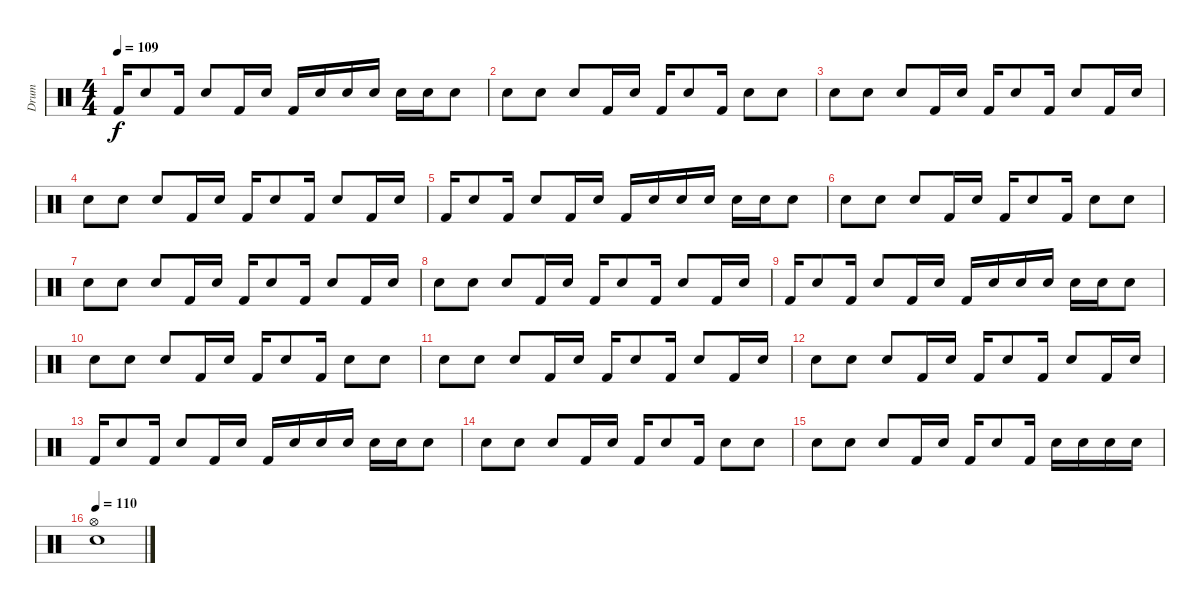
\track ("Drum" "Drum") {instrument percussion}
\staff {score}
\articulation defaults
\ts (4 4)
\tempo 109
\clef neutral
\ks c "Kick (hit) 2".16{dy f} "Electric Snare (hit)".8 "Kick (hit) 2".16 "Electric Snare (hit)".8 "Kick (hit) 2".16 "Electric Snare (hit)".16 "Kick (hit) 2".16 "Electric Snare (hit)".16 "Electric Snare (hit)".16 "Electric Snare (hit)".16 "Electric Snare (hit)".16 "Electric Snare (hit)".16 "Electric Snare (hit)".8
|
"Electric Snare (hit)".8 "Electric Snare (hit)".8 "Electric Snare (hit)".8 "Kick (hit) 2".16 "Electric Snare (hit)".16 "Kick (hit) 2".16 "Electric Snare (hit)".8 "Kick (hit) 2".16 "Electric Snare (hit)".8 "Electric Snare (hit)".8 |
"Electric Snare (hit)".8 "Electric Snare (hit)".8 "Electric Snare (hit)".8 "Kick (hit) 2".16 "Electric Snare (hit)".16 "Kick (hit) 2".16 "Electric Snare (hit)".8 "Kick (hit) 2".16 "Electric Snare (hit)".8 "Kick (hit) 2".16 "Electric Snare (hit)".16 |
"Electric Snare (hit)".8 "Electric Snare (hit)".8 "Electric Snare (hit)".8 "Kick (hit) 2".16 "Electric Snare (hit)".16 "Kick (hit) 2".16 "Electric Snare (hit)".8 "Kick (hit) 2".16 "Electric Snare (hit)".8 "Kick (hit) 2".16 "Electric Snare (hit)".16 |
"Kick (hit) 2".16 "Electric Snare (hit)".8 "Kick (hit) 2".16 "Electric Snare (hit)".8 "Kick (hit) 2".16 "Electric Snare (hit)".16 "Kick (hit) 2".16 "Electric Snare (hit)".16 "Electric Snare (hit)".16 "Electric Snare (hit)".16 "Electric Snare (hit)".16 "Electric Snare (hit)".16 "Electric Snare (hit)".8 |
"Electric Snare (hit)".8 "Electric Snare (hit)".8 "Electric Snare (hit)".8 "Kick (hit) 2".16 "Electric Snare (hit)".16 "Kick (hit) 2".16 "Electric Snare (hit)".8 "Kick (hit) 2".16 "Electric Snare (hit)".8 "Electric Snare (hit)".8 |
"Electric Snare (hit)".8 "Electric Snare (hit)".8 "Electric Snare (hit)".8 "Kick (hit) 2".16 "Electric Snare (hit)".16 "Kick (hit) 2".16 "Electric Snare (hit)".8 "Kick (hit) 2".16 "Electric Snare (hit)".8 "Kick (hit) 2".16 "Electric Snare (hit)".16 |
"Electric Snare (hit)".8 "Electric Snare (hit)".8 "Electric Snare (hit)".8 "Kick (hit) 2".16 "Electric Snare (hit)".16 "Kick (hit) 2".16 "Electric Snare (hit)".8 "Kick (hit) 2".16 "Electric Snare (hit)".8 "Kick (hit) 2".16 "Electric Snare (hit)".16 |
"Kick (hit) 2".16 "Electric Snare (hit)".8 "Kick (hit) 2".16 "Electric Snare (hit)".8 "Kick (hit) 2".16 "Electric Snare (hit)".16 "Kick (hit) 2".16 "Electric Snare (hit)".16 "Electric Snare (hit)".16 "Electric Snare (hit)".16 "Electric Snare (hit)".16 "Electric Snare (hit)".16 "Electric Snare (hit)".8 |
"Electric Snare (hit)".8 "Electric Snare (hit)".8 "Electric Snare (hit)".8 "Kick (hit) 2".16 "Electric Snare (hit)".16 "Kick (hit) 2".16 "Electric Snare (hit)".8 "Kick (hit) 2".16 "Electric Snare (hit)".8 "Electric Snare (hit)".8 |
"Electric Snare (hit)".8 "Electric Snare (hit)".8 "Electric Snare (hit)".8 "Kick (hit) 2".16 "Electric Snare (hit)".16 "Kick (hit) 2".16 "Electric Snare (hit)".8 "Kick (hit) 2".16 "Electric Snare (hit)".8 "Kick (hit) 2".16 "Electric Snare (hit)".16 |
"Electric Snare (hit)".8 "Electric Snare (hit)".8 "Electric Snare (hit)".8 "Kick (hit) 2".16 "Electric Snare (hit)".16 "Kick (hit) 2".16 "Electric Snare (hit)".8 "Kick (hit) 2".16 "Electric Snare (hit)".8 "Kick (hit) 2".16 "Electric Snare (hit)".16 |
"Kick (hit) 2".16 "Electric Snare (hit)".8 "Kick (hit) 2".16 "Electric Snare (hit)".8 "Kick (hit) 2".16 "Electric Snare (hit)".16 "Kick (hit) 2".16 "Electric Snare (hit)".16 "Electric Snare (hit)".16 "Electric Snare (hit)".16 "Electric Snare (hit)".16 "Electric Snare (hit)".16 "Electric Snare (hit)".8 |
"Electric Snare (hit)".8 "Electric Snare (hit)".8 "Electric Snare (hit)".8 "Kick (hit) 2".16 "Electric Snare (hit)".16 "Kick (hit) 2".16 "Electric Snare (hit)".8 "Kick (hit) 2".16 "Electric Snare (hit)".8 "Electric Snare (hit)".8 |
"Electric Snare (hit)".8 "Electric Snare (hit)".8 "Electric Snare (hit)".8 "Kick (hit) 2".16 "Electric Snare (hit)".16 "Kick (hit) 2".16 "Electric Snare (hit)".8 "Kick (hit) 2".16 "Electric Snare (hit)".16 "Electric Snare (hit)".16 "Electric Snare (hit)".16 "Electric Snare (hit)".16 |
\tempo 110
("Electric Snare (hit)" "Hi-Hat (open)").1
